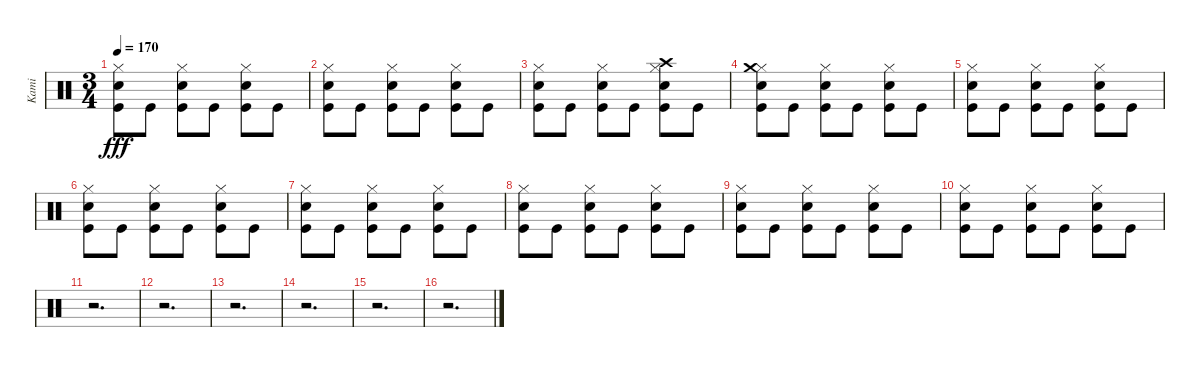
\track ("Kami" "Kami") {instrument percussion}
\staff {score}
\articulation defaults
\ts (3 4)
\tempo 170
\clef neutral
\ks c
("Kick (hit)" "Snare (hit) 2" "Hi-Hat (closed)").8{dy fff} "Kick (hit)".8 ("Kick (hit)" "Snare (hit) 2" "Hi-Hat (closed)").8 "Kick (hit)".8 ("Kick (hit)" "Snare (hit) 2" "Hi-Hat (closed)").8 "Kick (hit)".8 |
("Kick (hit)" "Snare (hit) 2" "Hi-Hat (closed)").8 "Kick (hit)".8 ("Kick (hit)" "Snare (hit) 2" "Hi-Hat (closed)").8 "Kick (hit)".8 ("Kick (hit)" "Snare (hit) 2" "Hi-Hat (closed)").8 "Kick (hit)".8 |
("Kick (hit)" "Snare (hit) 2" "Hi-Hat (closed)").8 "Kick (hit)".8 ("Kick (hit)" "Snare (hit) 2" "Hi-Hat (closed)").8 "Kick (hit)".8 ("Kick (hit)" "Snare (hit) 2" "Hi-Hat (closed)" "Crash high (hit)").8 "Kick (hit)".8 |
("Kick (hit)" "Snare (hit) 2" "Hi-Hat (closed)" "Crash medium (hit)").8 "Kick (hit)".8 ("Kick (hit)" "Snare (hit) 2" "Hi-Hat (closed)").8 "Kick (hit)".8 ("Kick (hit)" "Snare (hit) 2" "Hi-Hat (closed)").8 "Kick (hit)".8 |
("Kick (hit)" "Snare (hit) 2" "Hi-Hat (closed)").8 "Kick (hit)".8 ("Kick (hit)" "Snare (hit) 2" "Hi-Hat (closed)").8 "Kick (hit)".8 ("Kick (hit)" "Snare (hit) 2" "Hi-Hat (closed)").8 "Kick (hit)".8 |
("Kick (hit)" "Snare (hit) 2" "Hi-Hat (closed)").8 "Kick (hit)".8 ("Kick (hit)" "Snare (hit) 2" "Hi-Hat (closed)").8 "Kick (hit)".8 ("Kick (hit)" "Snare (hit) 2" "Hi-Hat (closed)").8 "Kick (hit)".8 |
("Kick (hit)" "Snare (hit) 2" "Hi-Hat (closed)").8 "Kick (hit)".8 ("Kick (hit)" "Snare (hit) 2" "Hi-Hat (closed)").8 "Kick (hit)".8 ("Kick (hit)" "Snare (hit) 2" "Hi-Hat (closed)").8 "Kick (hit)".8 |
("Kick (hit)" "Snare (hit) 2" "Hi-Hat (closed)").8 "Kick (hit)".8 ("Kick (hit)" "Snare (hit) 2" "Hi-Hat (closed)").8 "Kick (hit)".8 ("Kick (hit)" "Snare (hit) 2" "Hi-Hat (closed)").8 "Kick (hit)".8 |
("Kick (hit)" "Snare (hit) 2" "Hi-Hat (closed)").8 "Kick (hit)".8 ("Kick (hit)" "Snare (hit) 2" "Hi-Hat (closed)").8 "Kick (hit)".8 ("Kick (hit)" "Snare (hit) 2" "Hi-Hat (closed)").8 "Kick (hit)".8 |
("Kick (hit)" "Snare (hit) 2" "Hi-Hat (closed)").8 "Kick (hit)".8 ("Kick (hit)" "Snare (hit) 2" "Hi-Hat (closed)").8 "Kick (hit)".8 ("Kick (hit)" "Snare (hit) 2" "Hi-Hat (closed)").8 "Kick (hit)".8 |
r.2{d} |
r.2{d} |
r.2{d} |
r.2{d} |
r.2{d} |
r.2{d}
